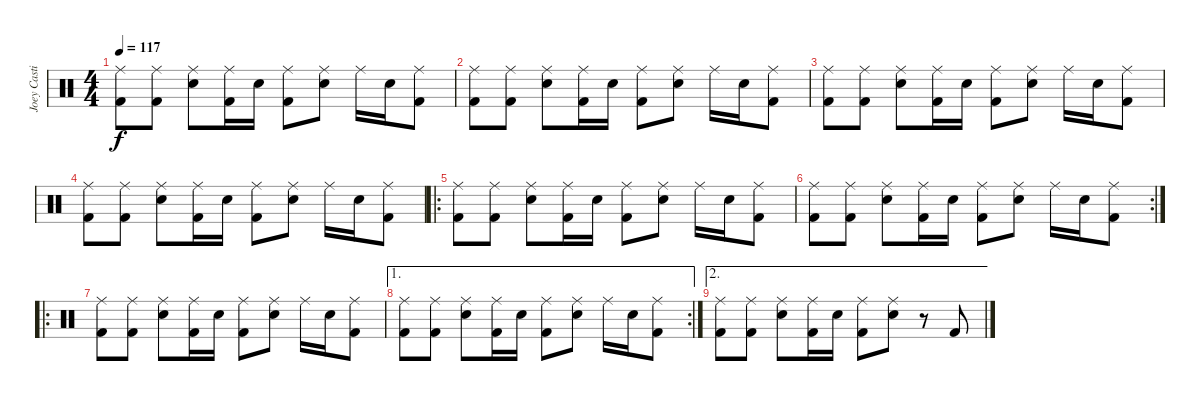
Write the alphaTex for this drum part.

\track ("Joey Castillo" "Joey Casti") {instrument percussion}
\staff {score}
\articulation defaults
\ts (4 4)
\tempo 117
\clef neutral
\ks c
("Ride (middle)" "Kick (hit) 2").8{dy f} ("Ride (middle)" "Kick (hit) 2").8 ("Ride (middle)" "Snare (hit) 2").8 ("Ride (middle)" "Kick (hit) 2").16 "Snare (hit) 2".16 ("Ride (middle)" "Kick (hit) 2").8 ("Ride (middle)" "Snare (hit) 2").8 "Ride (middle)".16 "Snare (hit) 2".16 ("Ride (middle)" "Kick (hit) 2").8 |
("Ride (middle)" "Kick (hit) 2").8 ("Ride (middle)" "Kick (hit) 2").8 ("Ride (middle)" "Snare (hit) 2").8 ("Ride (middle)" "Kick (hit) 2").16 "Snare (hit) 2".16 ("Ride (middle)" "Kick (hit) 2").8 ("Ride (middle)" "Snare (hit) 2").8 "Ride (middle)".16 "Snare (hit) 2".16 ("Ride (middle)" "Kick (hit) 2").8 |
("Ride (middle)" "Kick (hit) 2").8 ("Ride (middle)" "Kick (hit) 2").8 ("Ride (middle)" "Snare (hit) 2").8 ("Ride (middle)" "Kick (hit) 2").16 "Snare (hit) 2".16 ("Ride (middle)" "Kick (hit) 2").8 ("Ride (middle)" "Snare (hit) 2").8 "Ride (middle)".16 "Snare (hit) 2".16 ("Ride (middle)" "Kick (hit) 2").8 |
("Ride (middle)" "Kick (hit) 2").8 ("Ride (middle)" "Kick (hit) 2").8 ("Ride (middle)" "Snare (hit) 2").8 ("Ride (middle)" "Kick (hit) 2").16 "Snare (hit) 2".16 ("Ride (middle)" "Kick (hit) 2").8 ("Ride (middle)" "Snare (hit) 2").8 "Ride (middle)".16 "Snare (hit) 2".16 ("Ride (middle)" "Kick (hit) 2").8 |
\ro
("Ride (middle)" "Kick (hit) 2").8 ("Ride (middle)" "Kick (hit) 2").8 ("Ride (middle)" "Snare (hit) 2").8 ("Ride (middle)" "Kick (hit) 2").16 "Snare (hit) 2".16 ("Ride (middle)" "Kick (hit) 2").8 ("Ride (middle)" "Snare (hit) 2").8 "Ride (middle)".16 "Snare (hit) 2".16 ("Ride (middle)" "Kick (hit) 2").8 |
\rc 2
("Ride (middle)" "Kick (hit) 2").8 ("Ride (middle)" "Kick (hit) 2").8 ("Ride (middle)" "Snare (hit) 2").8 ("Ride (middle)" "Kick (hit) 2").16 "Snare (hit) 2".16 ("Ride (middle)" "Kick (hit) 2").8 ("Ride (middle)" "Snare (hit) 2").8 "Ride (middle)".16 "Snare (hit) 2".16 ("Ride (middle)" "Kick (hit) 2").8 |
\ro
("Ride (middle)" "Kick (hit) 2").8 ("Ride (middle)" "Kick (hit) 2").8 ("Ride (middle)" "Snare (hit) 2").8 ("Ride (middle)" "Kick (hit) 2").16 "Snare (hit) 2".16 ("Ride (middle)" "Kick (hit) 2").8 ("Ride (middle)" "Snare (hit) 2").8 "Ride (middle)".16 "Snare (hit) 2".16 ("Ride (middle)" "Kick (hit) 2").8 |
\ae 1
\rc 2
("Ride (middle)" "Kick (hit) 2").8 ("Ride (middle)" "Kick (hit) 2").8 ("Ride (middle)" "Snare (hit) 2").8 ("Ride (middle)" "Kick (hit) 2").16 "Snare (hit) 2".16 ("Ride (middle)" "Kick (hit) 2").8 ("Ride (middle)" "Snare (hit) 2").8 "Ride (middle)".16 "Snare (hit) 2".16 ("Ride (middle)" "Kick (hit) 2").8 |
\ae 2
("Ride (middle)" "Kick (hit) 2").8 ("Ride (middle)" "Kick (hit) 2").8 ("Ride (middle)" "Snare (hit) 2").8 ("Ride (middle)" "Kick (hit) 2").16 "Snare (hit) 2".16 ("Ride (middle)" "Kick (hit) 2").8 ("Ride (middle)" "Snare (hit) 2").8 r.8 "Kick (hit) 2".8
